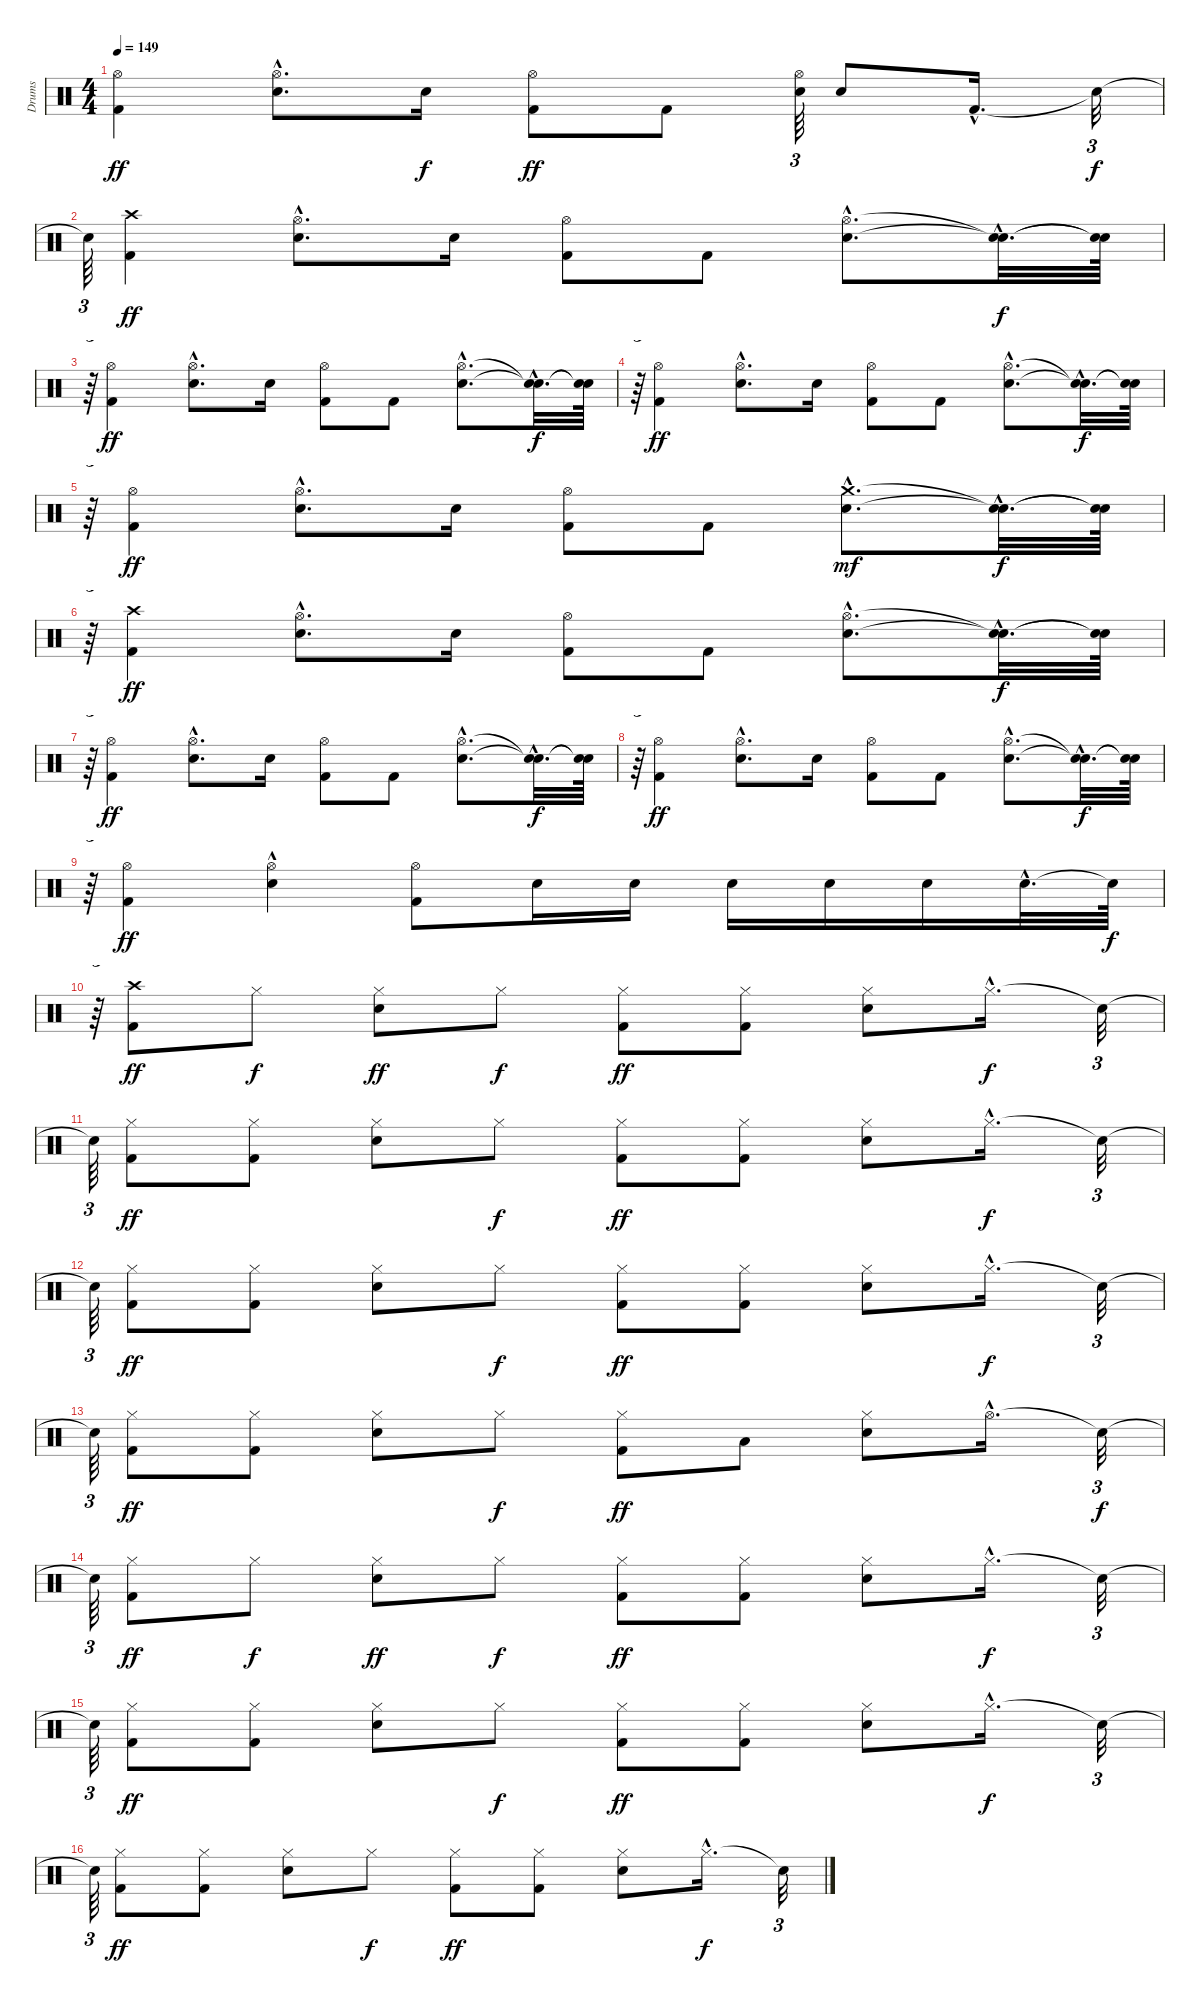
\track ("Drums" "Drums") {instrument percussion}
\staff {score}
\articulation defaults
\ts (4 4)
\tempo 149
\clef neutral
\ks c
("Kick (hit) 2" "Hi-Hat (open)").4{dy ff} ("Hi-Hat (open)" "Electric Snare (hit)"{hac}).8{d} "Electric Snare (hit)".16{dy f} ("Hi-Hat (open)" "Kick (hit) 2").8{dy ff} "Kick (hit) 2".8 ("Hi-Hat (open)" "Electric Snare (hit)").64{tu (3 2)} "Electric Snare (hit)".8 "Kick (hit) 2"{hac}.16{d} "Snare (hit)"{t}.32{tu (3 2) dy f} |
"Snare (hit)"{t}.64{tu (3 2)} ("Crash high (hit)" "Kick (hit) 2").4{dy ff} ("Hi-Hat (open)" "Electric Snare (hit)"{hac}).8{d} "Electric Snare (hit)".16 ("Hi-Hat (open)" "Kick (hit) 2").8 "Kick (hit) 2".8 ("Hi-Hat (open)"{hac} "Electric Snare (hit)"{hac}).8{d} ("Snare (hit)"{hac t} "Snare (hit)"{hac t}).32{d dy f} ("Snare (hit)"{t} "Snare (hit)"{t}).64 |
r.64{tu (3 2)} ("Kick (hit) 2" "Hi-Hat (open)").4{dy ff} ("Hi-Hat (open)" "Electric Snare (hit)"{hac}).8{d} "Electric Snare (hit)".16 ("Hi-Hat (open)" "Kick (hit) 2").8 "Kick (hit) 2".8 ("Hi-Hat (open)"{hac} "Electric Snare (hit)"{hac}).8{d} ("Snare (hit)"{hac t} "Snare (hit)"{hac t}).32{d dy f} ("Snare (hit)"{t} "Snare (hit)"{t}).64 |
r.64{tu (3 2)} ("Kick (hit) 2" "Hi-Hat (open)").4{dy ff} ("Hi-Hat (open)" "Electric Snare (hit)"{hac}).8{d} "Electric Snare (hit)".16 ("Hi-Hat (open)" "Kick (hit) 2").8 "Kick (hit) 2".8 ("Hi-Hat (open)"{hac} "Electric Snare (hit)"{hac}).8{d} ("Snare (hit)"{hac t} "Snare (hit)"{hac t}).32{d dy f} ("Snare (hit)"{t} "Snare (hit)"{t}).64 |
r.64{tu (3 2)} ("Kick (hit) 2" "Hi-Hat (open)").4{dy ff} ("Hi-Hat (open)" "Electric Snare (hit)"{hac}).8{d} "Electric Snare (hit)".16 ("Hi-Hat (open)" "Kick (hit) 2").8 "Kick (hit) 2".8 ("Electric Snare (hit)"{hac} "Crash medium (hit)"{hac}).8{d dy mf} ("Snare (hit)"{hac t} "Snare (hit)"{hac t}).32{d dy f} ("Snare (hit)"{t} "Snare (hit)"{t}).64 |
r.64{tu (3 2)} ("Crash high (hit)" "Kick (hit) 2").4{dy ff} ("Hi-Hat (open)" "Electric Snare (hit)"{hac}).8{d} "Electric Snare (hit)".16 ("Hi-Hat (open)" "Kick (hit) 2").8 "Kick (hit) 2".8 ("Hi-Hat (open)"{hac} "Electric Snare (hit)"{hac}).8{d} ("Snare (hit)"{hac t} "Snare (hit)"{hac t}).32{d dy f} ("Snare (hit)"{t} "Snare (hit)"{t}).64 |
r.64{tu (3 2)} ("Kick (hit) 2" "Hi-Hat (open)").4{dy ff} ("Hi-Hat (open)" "Electric Snare (hit)"{hac}).8{d} "Electric Snare (hit)".16 ("Hi-Hat (open)" "Kick (hit) 2").8 "Kick (hit) 2".8 ("Hi-Hat (open)"{hac} "Electric Snare (hit)"{hac}).8{d} ("Snare (hit)"{hac t} "Snare (hit)"{hac t}).32{d dy f} ("Snare (hit)"{t} "Snare (hit)"{t}).64 |
r.64{tu (3 2)} ("Kick (hit) 2" "Hi-Hat (open)").4{dy ff} ("Hi-Hat (open)" "Electric Snare (hit)"{hac}).8{d} "Electric Snare (hit)".16 ("Hi-Hat (open)" "Kick (hit) 2").8 "Kick (hit) 2".8 ("Hi-Hat (open)"{hac} "Electric Snare (hit)"{hac}).8{d} ("Snare (hit)"{hac t} "Snare (hit)"{hac t}).32{d dy f} ("Snare (hit)"{t} "Snare (hit)"{t}).64 |
r.64{tu (3 2)} ("Kick (hit) 2" "Hi-Hat (open)").4{dy ff} ("Hi-Hat (open)" "Electric Snare (hit)"{hac}).4 ("Hi-Hat (open)" "Kick (hit) 2").8 "Electric Snare (hit)".16 "Electric Snare (hit)".16 "Electric Snare (hit)".16 "Electric Snare (hit)".16 "Electric Snare (hit)".16 "Electric Snare (hit)"{hac}.32{d} "Snare (hit)"{t}.64{dy f} |
r.64{tu (3 2)} ("Crash high (hit)" "Kick (hit) 2").8{dy ff} "Hi-Hat (closed)".8{dy f} ("Hi-Hat (closed)" "Electric Snare (hit)").8{dy ff} "Hi-Hat (closed)".8{dy f} ("Kick (hit) 2" "Hi-Hat (closed)").8{dy ff} ("Hi-Hat (closed)" "Kick (hit) 2").8 ("Hi-Hat (closed)" "Electric Snare (hit)").8 "Hi-Hat (closed)"{hac}.16{d dy f} "Snare (hit)"{t}.32{tu (3 2)} |
"Snare (hit)"{t}.64{tu (3 2)} ("Kick (hit) 2" "Hi-Hat (closed)").8{dy ff} ("Hi-Hat (closed)" "Kick (hit) 2").8 ("Hi-Hat (closed)" "Electric Snare (hit)").8 "Hi-Hat (closed)".8{dy f} ("Kick (hit) 2" "Hi-Hat (closed)").8{dy ff} ("Hi-Hat (closed)" "Kick (hit) 2").8 ("Hi-Hat (closed)" "Electric Snare (hit)").8 "Hi-Hat (closed)"{hac}.16{d dy f} "Snare (hit)"{t}.32{tu (3 2)} |
"Snare (hit)"{t}.64{tu (3 2)} ("Kick (hit) 2" "Hi-Hat (closed)").8{dy ff} ("Hi-Hat (closed)" "Kick (hit) 2").8 ("Hi-Hat (closed)" "Electric Snare (hit)").8 "Hi-Hat (closed)".8{dy f} ("Kick (hit) 2" "Hi-Hat (closed)").8{dy ff} ("Hi-Hat (closed)" "Kick (hit) 2").8 ("Hi-Hat (closed)" "Electric Snare (hit)").8 "Hi-Hat (closed)"{hac}.16{d dy f} "Snare (hit)"{t}.32{tu (3 2)} |
"Snare (hit)"{t}.64{tu (3 2)} ("Kick (hit) 2" "Hi-Hat (closed)").8{dy ff} ("Hi-Hat (closed)" "Kick (hit) 2").8 ("Hi-Hat (closed)" "Electric Snare (hit)").8 "Hi-Hat (closed)".8{dy f} ("Kick (hit) 2" "Hi-Hat (closed)").8{dy ff} "Low Tom (hit)".8 ("Hi-Hat (closed)" "Electric Snare (hit)").8 "Hi-Hat (open)"{hac}.16{d} "Snare (hit)"{t}.32{tu (3 2) dy f} |
"Snare (hit)"{t}.64{tu (3 2)} ("Kick (hit) 2" "Hi-Hat (closed)").8{dy ff} "Hi-Hat (closed)".8{dy f} ("Hi-Hat (closed)" "Electric Snare (hit)").8{dy ff} "Hi-Hat (closed)".8{dy f} ("Kick (hit) 2" "Hi-Hat (closed)").8{dy ff} ("Hi-Hat (closed)" "Kick (hit) 2").8 ("Hi-Hat (closed)" "Electric Snare (hit)").8 "Hi-Hat (closed)"{hac}.16{d dy f} "Snare (hit)"{t}.32{tu (3 2)} |
"Snare (hit)"{t}.64{tu (3 2)} ("Kick (hit) 2" "Hi-Hat (closed)").8{dy ff} ("Hi-Hat (closed)" "Kick (hit) 2").8 ("Hi-Hat (closed)" "Electric Snare (hit)").8 "Hi-Hat (closed)".8{dy f} ("Kick (hit) 2" "Hi-Hat (closed)").8{dy ff} ("Hi-Hat (closed)" "Kick (hit) 2").8 ("Hi-Hat (closed)" "Electric Snare (hit)").8 "Hi-Hat (closed)"{hac}.16{d dy f} "Snare (hit)"{t}.32{tu (3 2)} |
"Snare (hit)"{t}.64{tu (3 2)} ("Kick (hit) 2" "Hi-Hat (closed)").8{dy ff} ("Hi-Hat (closed)" "Kick (hit) 2").8 ("Hi-Hat (closed)" "Electric Snare (hit)").8 "Hi-Hat (closed)".8{dy f} ("Kick (hit) 2" "Hi-Hat (closed)").8{dy ff} ("Hi-Hat (closed)" "Kick (hit) 2").8 ("Hi-Hat (closed)" "Electric Snare (hit)").8 "Hi-Hat (closed)"{hac}.16{d dy f} "Snare (hit)"{t}.32{tu (3 2)}
